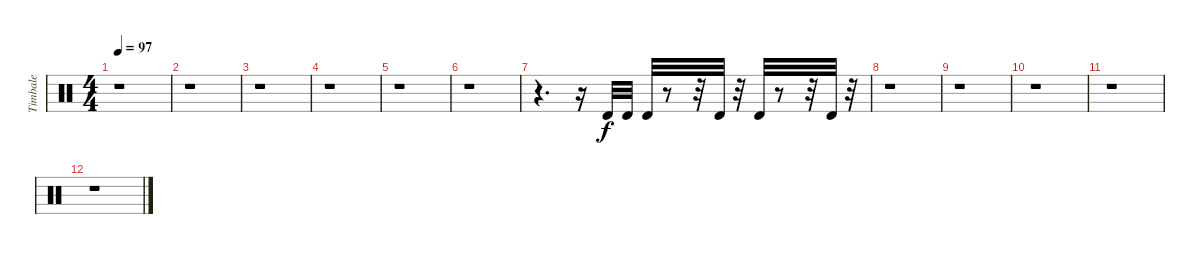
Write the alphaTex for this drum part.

\track ("Timbale" "Timbale") {instrument percussion}
\staff {score}
\articulation defaults
\ts (4 4)
\tempo 97
\clef neutral
\ks c
r.1{dy f} |
r.1 |
r.1 |
r.1 |
r.1 |
r.1 |
r.4{d} r.16 "Timbale high (hit)".32 "Timbale high (hit)".32 "Timbale high (hit)".32 r.8 r.32 "Timbale high (hit)".32 r.32 "Timbale high (hit)".32 r.8 r.32 "Timbale high (hit)".32 r.32 |
r.1 |
r.1 |
r.1 |
r.1 |
r.1
